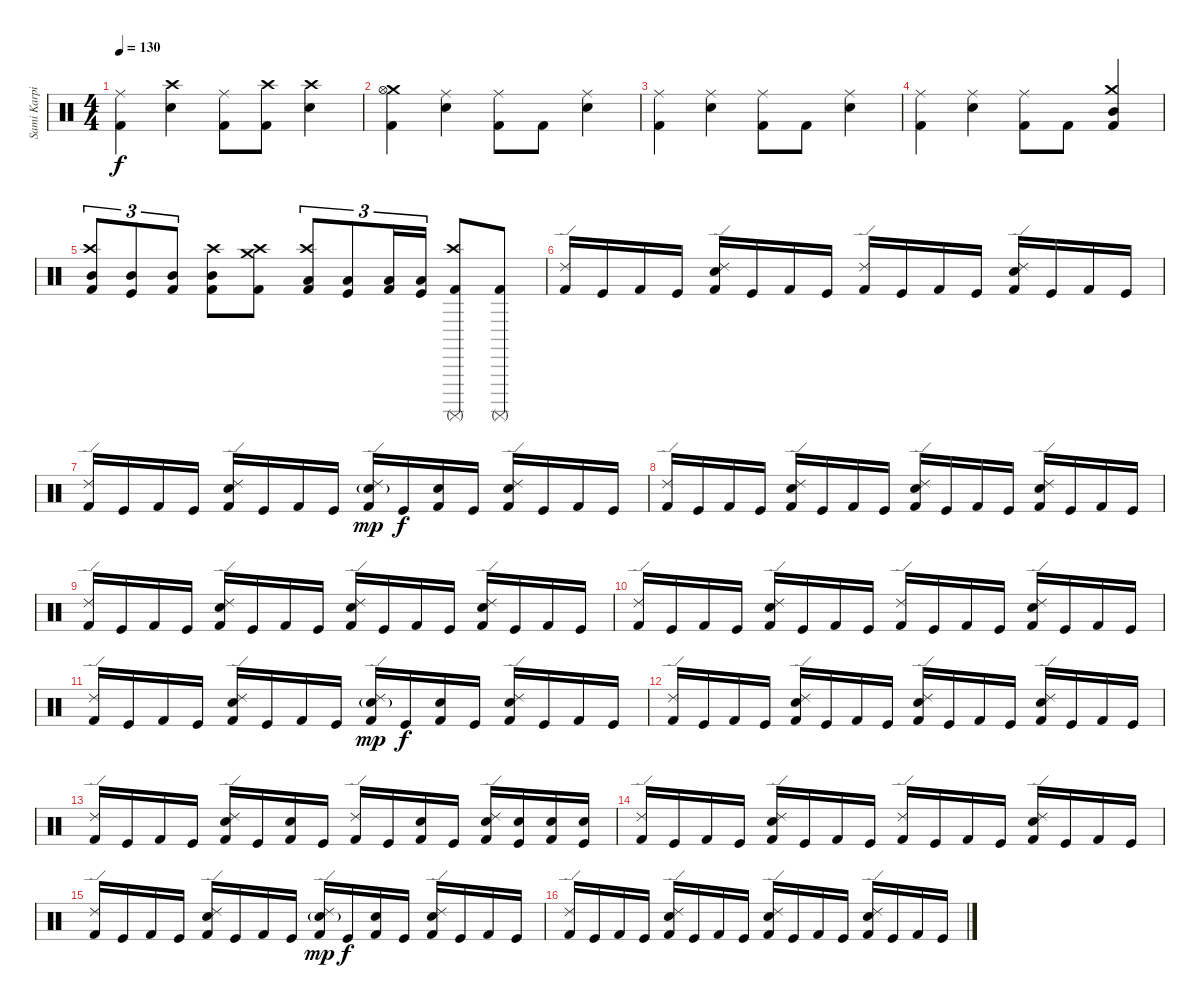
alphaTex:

\track ("Sami Karpinnen" "Sami Karpi") {instrument percussion}
\staff {score}
\articulation defaults
\ts (4 4)
\tempo 130
\clef neutral
\ks c
("Ride (middle)" "Kick (hit) 2").4{dy f} ("Crash high (hit)" "Electric Snare (hit)").4 ("Ride (middle)" "Kick (hit) 2").8 ("Crash high (hit)" "Kick (hit) 2").8 ("Crash high (hit)" "Electric Snare (hit)").4 |
("Crash medium (hit)" "Hi-Hat (open)" "Kick (hit) 2").4 ("Ride (middle)" "Electric Snare (hit)").4 ("Ride (middle)" "Kick (hit) 2").8 "Kick (hit) 2".8 ("Ride (middle)" "Electric Snare (hit)").4 |
("Ride (middle)" "Kick (hit) 2").4 ("Ride (middle)" "Electric Snare (hit)").4 ("Ride (middle)" "Kick (hit) 2").8 "Kick (hit) 2".8 ("Ride (middle)" "Electric Snare (hit)").4 |
("Ride (middle)" "Kick (hit) 2").4 ("Ride (middle)" "Electric Snare (hit)").4 ("Ride (middle)" "Kick (hit) 2").8 "Kick (hit) 2".8 ("Mid Tom (hit)" "Crash medium (hit)" "Kick (hit) 2").4 |
("Crash high (hit)" "Mid Tom (hit)" "Kick (hit) 2").8{tu (3 2)} ("Mid Tom (hit)" "Kick (hit)").8{tu (3 2)} ("Mid Tom (hit)" "Kick (hit) 2").8{tu (3 2)} ("Crash high (hit)" "Mid Tom (hit)" "Kick (hit) 2").8 ("Crash high (hit)" "Crash medium (hit)" "Kick (hit) 2").8 ("Crash high (hit)" "Low Tom (hit)" "Kick (hit) 2").8{tu (3 2)} ("Low Tom (hit)" "Kick (hit)").8{tu (3 2)} ("Low Tom (hit)" "Kick (hit) 2").16{tu (3 2)} ("Low Tom (hit)" "Kick (hit)").16{tu (3 2)} ("Crash high (hit)" "Surdo (mute)" "Kick (hit) 2").8 ("Surdo (mute)" "Kick (hit) 2").8 |
("Ride (edge) 2" "Kick (hit) 2").16 "Kick (hit)".16 "Kick (hit) 2".16 "Kick (hit)".16 ("Ride (edge) 2" "Electric Snare (hit)" "Kick (hit) 2").16 "Kick (hit)".16 "Kick (hit) 2".16 "Kick (hit)".16 ("Ride (edge) 2" "Kick (hit) 2").16 "Kick (hit)".16 "Kick (hit) 2".16 "Kick (hit)".16 ("Ride (edge) 2" "Electric Snare (hit)" "Kick (hit) 2").16 "Kick (hit)".16 "Kick (hit) 2".16 "Kick (hit)".16 |
("Ride (edge) 2" "Kick (hit) 2").16 "Kick (hit)".16 "Kick (hit) 2".16 "Kick (hit)".16 ("Ride (edge) 2" "Electric Snare (hit)" "Kick (hit) 2").16 "Kick (hit)".16 "Kick (hit) 2".16 "Kick (hit)".16 ("Ride (edge) 2" "Electric Snare (hit)"{g} "Kick (hit) 2").16{dy mp} "Kick (hit)".16{dy f} ("Electric Snare (hit)" "Kick (hit) 2").16 "Kick (hit)".16 ("Ride (edge) 2" "Electric Snare (hit)" "Kick (hit) 2").16 "Kick (hit)".16 "Kick (hit) 2".16 "Kick (hit)".16 |
("Ride (edge) 2" "Kick (hit) 2").16 "Kick (hit)".16 "Kick (hit) 2".16 "Kick (hit)".16 ("Ride (edge) 2" "Electric Snare (hit)" "Kick (hit) 2").16 "Kick (hit)".16 "Kick (hit) 2".16 "Kick (hit)".16 ("Ride (edge) 2" "Electric Snare (hit)" "Kick (hit) 2").16 "Kick (hit)".16 "Kick (hit) 2".16 "Kick (hit)".16 ("Ride (edge) 2" "Electric Snare (hit)" "Kick (hit) 2").16 "Kick (hit)".16 "Kick (hit) 2".16 "Kick (hit)".16 |
("Ride (edge) 2" "Kick (hit) 2").16 "Kick (hit)".16 "Kick (hit) 2".16 "Kick (hit)".16 ("Ride (edge) 2" "Electric Snare (hit)" "Kick (hit) 2").16 "Kick (hit)".16 "Kick (hit) 2".16 "Kick (hit)".16 ("Ride (edge) 2" "Electric Snare (hit)" "Kick (hit) 2").16 "Kick (hit)".16 "Kick (hit) 2".16 "Kick (hit)".16 ("Ride (edge) 2" "Electric Snare (hit)" "Kick (hit) 2").16 "Kick (hit)".16 "Kick (hit) 2".16 "Kick (hit)".16 |
("Ride (edge) 2" "Kick (hit) 2").16 "Kick (hit)".16 "Kick (hit) 2".16 "Kick (hit)".16 ("Ride (edge) 2" "Electric Snare (hit)" "Kick (hit) 2").16 "Kick (hit)".16 "Kick (hit) 2".16 "Kick (hit)".16 ("Ride (edge) 2" "Kick (hit) 2").16 "Kick (hit)".16 "Kick (hit) 2".16 "Kick (hit)".16 ("Ride (edge) 2" "Electric Snare (hit)" "Kick (hit) 2").16 "Kick (hit)".16 "Kick (hit) 2".16 "Kick (hit)".16 |
("Ride (edge) 2" "Kick (hit) 2").16 "Kick (hit)".16 "Kick (hit) 2".16 "Kick (hit)".16 ("Ride (edge) 2" "Electric Snare (hit)" "Kick (hit) 2").16 "Kick (hit)".16 "Kick (hit) 2".16 "Kick (hit)".16 ("Ride (edge) 2" "Electric Snare (hit)"{g} "Kick (hit) 2").16{dy mp} "Kick (hit)".16{dy f} ("Electric Snare (hit)" "Kick (hit) 2").16 "Kick (hit)".16 ("Ride (edge) 2" "Electric Snare (hit)" "Kick (hit) 2").16 "Kick (hit)".16 "Kick (hit) 2".16 "Kick (hit)".16 |
("Ride (edge) 2" "Kick (hit) 2").16 "Kick (hit)".16 "Kick (hit) 2".16 "Kick (hit)".16 ("Ride (edge) 2" "Electric Snare (hit)" "Kick (hit) 2").16 "Kick (hit)".16 "Kick (hit) 2".16 "Kick (hit)".16 ("Ride (edge) 2" "Electric Snare (hit)" "Kick (hit) 2").16 "Kick (hit)".16 "Kick (hit) 2".16 "Kick (hit)".16 ("Ride (edge) 2" "Electric Snare (hit)" "Kick (hit) 2").16 "Kick (hit)".16 "Kick (hit) 2".16 "Kick (hit)".16 |
("Ride (edge) 2" "Kick (hit) 2").16 "Kick (hit)".16 "Kick (hit) 2".16 "Kick (hit)".16 ("Ride (edge) 2" "Electric Snare (hit)" "Kick (hit) 2").16 "Kick (hit)".16 ("Electric Snare (hit)" "Kick (hit) 2").16 "Kick (hit)".16 ("Ride (edge) 2" "Kick (hit) 2").16 "Kick (hit)".16 ("Electric Snare (hit)" "Kick (hit) 2").16 "Kick (hit)".16 ("Ride (edge) 2" "Electric Snare (hit)" "Kick (hit) 2").16 ("Electric Snare (hit)" "Kick (hit)").16 ("Electric Snare (hit)" "Kick (hit) 2").16 ("Electric Snare (hit)" "Kick (hit)").16 |
("Ride (edge) 2" "Kick (hit) 2").16 "Kick (hit)".16 "Kick (hit) 2".16 "Kick (hit)".16 ("Ride (edge) 2" "Electric Snare (hit)" "Kick (hit) 2").16 "Kick (hit)".16 "Kick (hit) 2".16 "Kick (hit)".16 ("Ride (edge) 2" "Kick (hit) 2").16 "Kick (hit)".16 "Kick (hit) 2".16 "Kick (hit)".16 ("Ride (edge) 2" "Electric Snare (hit)" "Kick (hit) 2").16 "Kick (hit)".16 "Kick (hit) 2".16 "Kick (hit)".16 |
("Ride (edge) 2" "Kick (hit) 2").16 "Kick (hit)".16 "Kick (hit) 2".16 "Kick (hit)".16 ("Ride (edge) 2" "Electric Snare (hit)" "Kick (hit) 2").16 "Kick (hit)".16 "Kick (hit) 2".16 "Kick (hit)".16 ("Ride (edge) 2" "Electric Snare (hit)"{g} "Kick (hit) 2").16{dy mp} "Kick (hit)".16{dy f} ("Electric Snare (hit)" "Kick (hit) 2").16 "Kick (hit)".16 ("Ride (edge) 2" "Electric Snare (hit)" "Kick (hit) 2").16 "Kick (hit)".16 "Kick (hit) 2".16 "Kick (hit)".16 |
("Ride (edge) 2" "Kick (hit) 2").16 "Kick (hit)".16 "Kick (hit) 2".16 "Kick (hit)".16 ("Ride (edge) 2" "Electric Snare (hit)" "Kick (hit) 2").16 "Kick (hit)".16 "Kick (hit) 2".16 "Kick (hit)".16 ("Ride (edge) 2" "Electric Snare (hit)" "Kick (hit) 2").16 "Kick (hit)".16 "Kick (hit) 2".16 "Kick (hit)".16 ("Ride (edge) 2" "Electric Snare (hit)" "Kick (hit) 2").16 "Kick (hit)".16 "Kick (hit) 2".16 "Kick (hit)".16
